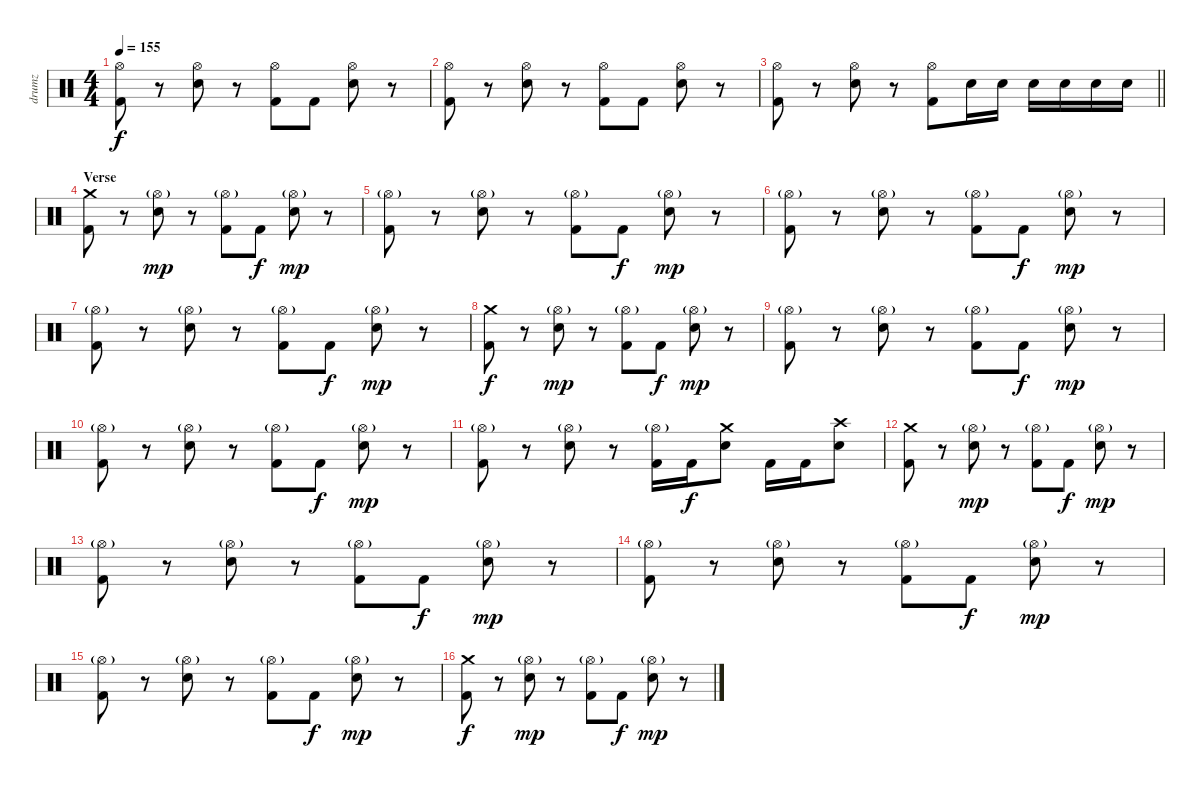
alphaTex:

\track ("drumz" "drumz") {instrument percussion}
\staff {score}
\articulation defaults
\ts (4 4)
\tempo 155
\clef neutral
\ks c
("Hi-Hat (open)" "Kick (hit) 2").8{dy f} r.8 ("Hi-Hat (open)" "Electric Snare (hit)").8 r.8 ("Hi-Hat (open)" "Kick (hit) 2").8 "Kick (hit) 2".8 ("Hi-Hat (open)" "Electric Snare (hit)").8 r.8 |
("Hi-Hat (open)" "Kick (hit) 2").8 r.8 ("Hi-Hat (open)" "Electric Snare (hit)").8 r.8 ("Hi-Hat (open)" "Kick (hit) 2").8 "Kick (hit) 2".8 ("Hi-Hat (open)" "Electric Snare (hit)").8 r.8 |
\barLineRight lightlight
("Hi-Hat (open)" "Kick (hit) 2").8 r.8 ("Hi-Hat (open)" "Electric Snare (hit)").8 r.8 ("Hi-Hat (open)" "Kick (hit) 2").8 "Electric Snare (hit)".16 "Electric Snare (hit)".16 "Electric Snare (hit)".16 "Electric Snare (hit)".16 "Electric Snare (hit)".16 "Electric Snare (hit)".16 |
\section ("" "Verse")
("Crash medium (hit)" "Kick (hit) 2").8 r.8 ("Hi-Hat (open)"{g} "Electric Snare (hit)").8{dy mp} r.8 ("Hi-Hat (open)"{g} "Kick (hit) 2").8 "Kick (hit) 2".8{dy f} ("Hi-Hat (open)"{g} "Electric Snare (hit)").8{dy mp} r.8 |
("Hi-Hat (open)"{g} "Kick (hit) 2").8 r.8 ("Hi-Hat (open)"{g} "Electric Snare (hit)").8 r.8 ("Hi-Hat (open)"{g} "Kick (hit) 2").8 "Kick (hit) 2".8{dy f} ("Hi-Hat (open)"{g} "Electric Snare (hit)").8{dy mp} r.8 |
("Hi-Hat (open)"{g} "Kick (hit) 2").8 r.8 ("Hi-Hat (open)"{g} "Electric Snare (hit)").8 r.8 ("Hi-Hat (open)"{g} "Kick (hit) 2").8 "Kick (hit) 2".8{dy f} ("Hi-Hat (open)"{g} "Electric Snare (hit)").8{dy mp} r.8 |
("Hi-Hat (open)"{g} "Kick (hit) 2").8 r.8 ("Hi-Hat (open)"{g} "Electric Snare (hit)").8 r.8 ("Hi-Hat (open)"{g} "Kick (hit) 2").8 "Kick (hit) 2".8{dy f} ("Hi-Hat (open)"{g} "Electric Snare (hit)").8{dy mp} r.8 |
("Crash medium (hit)" "Kick (hit) 2").8{dy f} r.8 ("Hi-Hat (open)"{g} "Electric Snare (hit)").8{dy mp} r.8 ("Hi-Hat (open)"{g} "Kick (hit) 2").8 "Kick (hit) 2".8{dy f} ("Hi-Hat (open)"{g} "Electric Snare (hit)").8{dy mp} r.8 |
("Hi-Hat (open)"{g} "Kick (hit) 2").8 r.8 ("Hi-Hat (open)"{g} "Electric Snare (hit)").8 r.8 ("Hi-Hat (open)"{g} "Kick (hit) 2").8 "Kick (hit) 2".8{dy f} ("Hi-Hat (open)"{g} "Electric Snare (hit)").8{dy mp} r.8 |
("Hi-Hat (open)"{g} "Kick (hit) 2").8 r.8 ("Hi-Hat (open)"{g} "Electric Snare (hit)").8 r.8 ("Hi-Hat (open)"{g} "Kick (hit) 2").8 "Kick (hit) 2".8{dy f} ("Hi-Hat (open)"{g} "Electric Snare (hit)").8{dy mp} r.8 |
("Hi-Hat (open)"{g} "Kick (hit) 2").8 r.8 ("Hi-Hat (open)"{g} "Electric Snare (hit)").8 r.8 ("Hi-Hat (open)"{g} "Kick (hit) 2").16 "Kick (hit) 2".16{dy f} ("Crash medium (hit)" "Electric Snare (hit)").8 "Kick (hit) 2".16 "Kick (hit) 2".16 ("Crash high (hit)" "Electric Snare (hit)").8 |
("Crash medium (hit)" "Kick (hit) 2").8 r.8 ("Hi-Hat (open)"{g} "Electric Snare (hit)").8{dy mp} r.8 ("Hi-Hat (open)"{g} "Kick (hit) 2").8 "Kick (hit) 2".8{dy f} ("Hi-Hat (open)"{g} "Electric Snare (hit)").8{dy mp} r.8 |
("Hi-Hat (open)"{g} "Kick (hit) 2").8 r.8 ("Hi-Hat (open)"{g} "Electric Snare (hit)").8 r.8 ("Hi-Hat (open)"{g} "Kick (hit) 2").8 "Kick (hit) 2".8{dy f} ("Hi-Hat (open)"{g} "Electric Snare (hit)").8{dy mp} r.8 |
("Hi-Hat (open)"{g} "Kick (hit) 2").8 r.8 ("Hi-Hat (open)"{g} "Electric Snare (hit)").8 r.8 ("Hi-Hat (open)"{g} "Kick (hit) 2").8 "Kick (hit) 2".8{dy f} ("Hi-Hat (open)"{g} "Electric Snare (hit)").8{dy mp} r.8 |
("Hi-Hat (open)"{g} "Kick (hit) 2").8 r.8 ("Hi-Hat (open)"{g} "Electric Snare (hit)").8 r.8 ("Hi-Hat (open)"{g} "Kick (hit) 2").8 "Kick (hit) 2".8{dy f} ("Hi-Hat (open)"{g} "Electric Snare (hit)").8{dy mp} r.8 |
("Crash medium (hit)" "Kick (hit) 2").8{dy f} r.8 ("Hi-Hat (open)"{g} "Electric Snare (hit)").8{dy mp} r.8 ("Hi-Hat (open)"{g} "Kick (hit) 2").8 "Kick (hit) 2".8{dy f} ("Hi-Hat (open)"{g} "Electric Snare (hit)").8{dy mp} r.8
